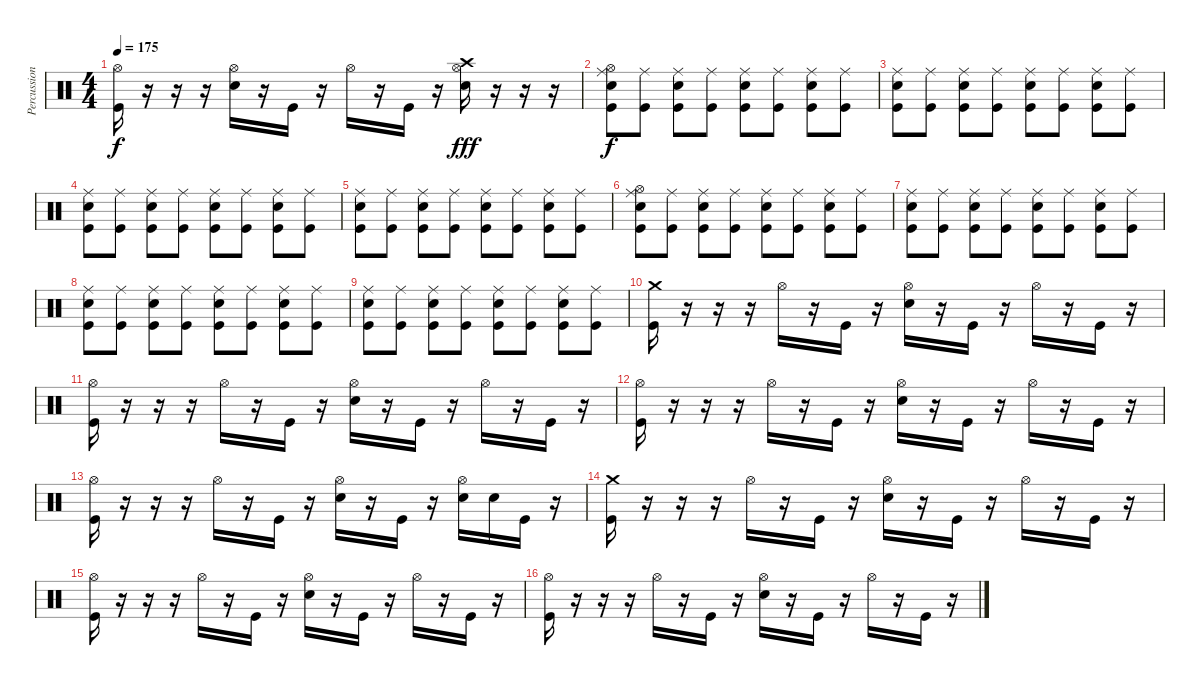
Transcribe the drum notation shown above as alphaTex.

\track ("Percussions" "Percussion") {instrument percussion}
\staff {score}
\articulation defaults
\ts (4 4)
\tempo 175
\clef neutral
\ks c
("Hi-Hat (open)" "Kick (hit)").16{dy f} r.16 r.16 r.16 ("Hi-Hat (open)" "Electric Snare (hit)").16 r.16 "Kick (hit)".16 r.16 "Hi-Hat (open)".16 r.16 "Kick (hit)".16 r.16 ("Hi-Hat (open)" "Crash high (hit)" "Electric Snare (hit)").16{dy fff} r.16 r.16 r.16 |
("Hi-Hat (open)" "Ride (middle)" "Electric Snare (hit)" "Kick (hit)").8{dy f} ("Ride (middle)" "Kick (hit)").8 ("Ride (middle)" "Electric Snare (hit)" "Kick (hit)").8 ("Ride (middle)" "Kick (hit)").8 ("Ride (middle)" "Electric Snare (hit)" "Kick (hit)").8 ("Ride (middle)" "Kick (hit)").8 ("Ride (middle)" "Electric Snare (hit)" "Kick (hit)").8 ("Ride (middle)" "Kick (hit)").8 |
("Ride (middle)" "Electric Snare (hit)" "Kick (hit)").8 ("Ride (middle)" "Kick (hit)").8 ("Ride (middle)" "Electric Snare (hit)" "Kick (hit)").8 ("Ride (middle)" "Kick (hit)").8 ("Ride (middle)" "Electric Snare (hit)" "Kick (hit)").8 ("Ride (middle)" "Kick (hit)").8 ("Ride (middle)" "Electric Snare (hit)" "Kick (hit)").8 ("Ride (middle)" "Kick (hit)").8 |
("Ride (middle)" "Electric Snare (hit)" "Kick (hit)").8 ("Ride (middle)" "Kick (hit)").8 ("Ride (middle)" "Electric Snare (hit)" "Kick (hit)").8 ("Ride (middle)" "Kick (hit)").8 ("Ride (middle)" "Electric Snare (hit)" "Kick (hit)").8 ("Ride (middle)" "Kick (hit)").8 ("Ride (middle)" "Electric Snare (hit)" "Kick (hit)").8 ("Ride (middle)" "Kick (hit)").8 |
("Ride (middle)" "Electric Snare (hit)" "Kick (hit)").8 ("Ride (middle)" "Kick (hit)").8 ("Ride (middle)" "Electric Snare (hit)" "Kick (hit)").8 ("Ride (middle)" "Kick (hit)").8 ("Ride (middle)" "Electric Snare (hit)" "Kick (hit)").8 ("Ride (middle)" "Kick (hit)").8 ("Ride (middle)" "Electric Snare (hit)" "Kick (hit)").8 ("Ride (middle)" "Kick (hit)").8 |
("Hi-Hat (open)" "Ride (middle)" "Electric Snare (hit)" "Kick (hit)").8 ("Ride (middle)" "Kick (hit)").8 ("Ride (middle)" "Electric Snare (hit)" "Kick (hit)").8 ("Ride (middle)" "Kick (hit)").8 ("Ride (middle)" "Electric Snare (hit)" "Kick (hit)").8 ("Ride (middle)" "Kick (hit)").8 ("Ride (middle)" "Electric Snare (hit)" "Kick (hit)").8 ("Ride (middle)" "Kick (hit)").8 |
("Ride (middle)" "Electric Snare (hit)" "Kick (hit)").8 ("Ride (middle)" "Kick (hit)").8 ("Ride (middle)" "Electric Snare (hit)" "Kick (hit)").8 ("Ride (middle)" "Kick (hit)").8 ("Ride (middle)" "Electric Snare (hit)" "Kick (hit)").8 ("Ride (middle)" "Kick (hit)").8 ("Ride (middle)" "Electric Snare (hit)" "Kick (hit)").8 ("Ride (middle)" "Kick (hit)").8 |
("Ride (middle)" "Electric Snare (hit)" "Kick (hit)").8 ("Ride (middle)" "Kick (hit)").8 ("Ride (middle)" "Electric Snare (hit)" "Kick (hit)").8 ("Ride (middle)" "Kick (hit)").8 ("Ride (middle)" "Electric Snare (hit)" "Kick (hit)").8 ("Ride (middle)" "Kick (hit)").8 ("Ride (middle)" "Electric Snare (hit)" "Kick (hit)").8 ("Ride (middle)" "Kick (hit)").8 |
("Ride (middle)" "Electric Snare (hit)" "Kick (hit)").8 ("Ride (middle)" "Kick (hit)").8 ("Ride (middle)" "Electric Snare (hit)" "Kick (hit)").8 ("Ride (middle)" "Kick (hit)").8 ("Ride (middle)" "Electric Snare (hit)" "Kick (hit)").8 ("Ride (middle)" "Kick (hit)").8 ("Ride (middle)" "Electric Snare (hit)" "Kick (hit)").8 ("Ride (middle)" "Kick (hit)").8 |
("Crash medium (hit)" "Kick (hit)").16 r.16 r.16 r.16 "Hi-Hat (open)".16 r.16 "Kick (hit)".16 r.16 ("Hi-Hat (open)" "Electric Snare (hit)").16 r.16 "Kick (hit)".16 r.16 "Hi-Hat (open)".16 r.16 "Kick (hit)".16 r.16 |
("Hi-Hat (open)" "Kick (hit)").16 r.16 r.16 r.16 "Hi-Hat (open)".16 r.16 "Kick (hit)".16 r.16 ("Hi-Hat (open)" "Electric Snare (hit)").16 r.16 "Kick (hit)".16 r.16 "Hi-Hat (open)".16 r.16 "Kick (hit)".16 r.16 |
("Hi-Hat (open)" "Kick (hit)").16 r.16 r.16 r.16 "Hi-Hat (open)".16 r.16 "Kick (hit)".16 r.16 ("Hi-Hat (open)" "Electric Snare (hit)").16 r.16 "Kick (hit)".16 r.16 "Hi-Hat (open)".16 r.16 "Kick (hit)".16 r.16 |
("Hi-Hat (open)" "Kick (hit)").16 r.16 r.16 r.16 "Hi-Hat (open)".16 r.16 "Kick (hit)".16 r.16 ("Hi-Hat (open)" "Electric Snare (hit)").16 r.16 "Kick (hit)".16 r.16 ("Hi-Hat (open)" "Electric Snare (hit)").16 "Electric Snare (hit)".16 "Kick (hit)".16 r.16 |
("Crash medium (hit)" "Kick (hit)").16 r.16 r.16 r.16 "Hi-Hat (open)".16 r.16 "Kick (hit)".16 r.16 ("Hi-Hat (open)" "Electric Snare (hit)").16 r.16 "Kick (hit)".16 r.16 "Hi-Hat (open)".16 r.16 "Kick (hit)".16 r.16 |
("Hi-Hat (open)" "Kick (hit)").16 r.16 r.16 r.16 "Hi-Hat (open)".16 r.16 "Kick (hit)".16 r.16 ("Hi-Hat (open)" "Electric Snare (hit)").16 r.16 "Kick (hit)".16 r.16 "Hi-Hat (open)".16 r.16 "Kick (hit)".16 r.16 |
("Hi-Hat (open)" "Kick (hit)").16 r.16 r.16 r.16 "Hi-Hat (open)".16 r.16 "Kick (hit)".16 r.16 ("Hi-Hat (open)" "Electric Snare (hit)").16 r.16 "Kick (hit)".16 r.16 "Hi-Hat (open)".16 r.16 "Kick (hit)".16 r.16
